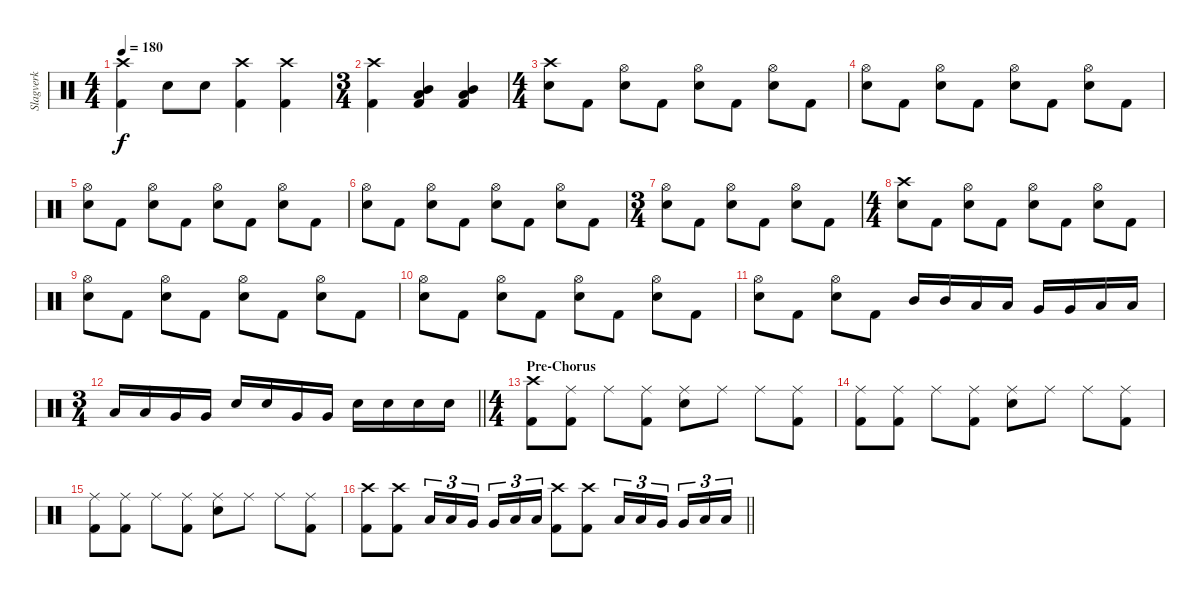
\track ("Slagverk" "Slagverk") {instrument percussion}
\staff {score}
\articulation defaults
\ts (4 4)
\tempo 180
\clef neutral
\ks c
("Crash high (hit)" "Kick (hit) 2").4{dy f} "Electric Snare (hit)".8 "Electric Snare (hit)".8 ("Crash high (hit)" "Kick (hit) 2").4 ("Crash high (hit)" "Kick (hit) 2").4 |
\ts (3 4)
("Crash high (hit)" "Kick (hit) 2").4 ("Mid Tom (hit)" "Low Tom (hit)" "Kick (hit) 2").4 ("Mid Tom (hit)" "Low Tom (hit)" "Kick (hit) 2").4 |
\ts (4 4)
("Crash high (hit)" "Electric Snare (hit)").8 "Kick (hit) 2".8 ("Hi-Hat (open)" "Electric Snare (hit)").8 "Kick (hit) 2".8 ("Hi-Hat (open)" "Electric Snare (hit)").8 "Kick (hit) 2".8 ("Hi-Hat (open)" "Electric Snare (hit)").8 "Kick (hit) 2".8 |
("Hi-Hat (open)" "Electric Snare (hit)").8 "Kick (hit) 2".8 ("Hi-Hat (open)" "Electric Snare (hit)").8 "Kick (hit) 2".8 ("Hi-Hat (open)" "Electric Snare (hit)").8 "Kick (hit) 2".8 ("Hi-Hat (open)" "Electric Snare (hit)").8 "Kick (hit) 2".8 |
("Hi-Hat (open)" "Electric Snare (hit)").8 "Kick (hit) 2".8 ("Hi-Hat (open)" "Electric Snare (hit)").8 "Kick (hit) 2".8 ("Hi-Hat (open)" "Electric Snare (hit)").8 "Kick (hit) 2".8 ("Hi-Hat (open)" "Electric Snare (hit)").8 "Kick (hit) 2".8 |
("Hi-Hat (open)" "Electric Snare (hit)").8 "Kick (hit) 2".8 ("Hi-Hat (open)" "Electric Snare (hit)").8 "Kick (hit) 2".8 ("Hi-Hat (open)" "Electric Snare (hit)").8 "Kick (hit) 2".8 ("Hi-Hat (open)" "Electric Snare (hit)").8 "Kick (hit) 2".8 |
\ts (3 4)
("Hi-Hat (open)" "Electric Snare (hit)").8 "Kick (hit) 2".8 ("Hi-Hat (open)" "Electric Snare (hit)").8 "Kick (hit) 2".8 ("Hi-Hat (open)" "Electric Snare (hit)").8 "Kick (hit) 2".8 |
\ts (4 4)
("Crash high (hit)" "Electric Snare (hit)").8 "Kick (hit) 2".8 ("Hi-Hat (open)" "Electric Snare (hit)").8 "Kick (hit) 2".8 ("Hi-Hat (open)" "Electric Snare (hit)").8 "Kick (hit) 2".8 ("Hi-Hat (open)" "Electric Snare (hit)").8 "Kick (hit) 2".8 |
("Hi-Hat (open)" "Electric Snare (hit)").8 "Kick (hit) 2".8 ("Hi-Hat (open)" "Electric Snare (hit)").8 "Kick (hit) 2".8 ("Hi-Hat (open)" "Electric Snare (hit)").8 "Kick (hit) 2".8 ("Hi-Hat (open)" "Electric Snare (hit)").8 "Kick (hit) 2".8 |
("Hi-Hat (open)" "Electric Snare (hit)").8 "Kick (hit) 2".8 ("Hi-Hat (open)" "Electric Snare (hit)").8 "Kick (hit) 2".8 ("Hi-Hat (open)" "Electric Snare (hit)").8 "Kick (hit) 2".8 ("Hi-Hat (open)" "Electric Snare (hit)").8 "Kick (hit) 2".8 |
("Hi-Hat (open)" "Electric Snare (hit)").8 "Kick (hit) 2".8 ("Hi-Hat (open)" "Electric Snare (hit)").8 "Kick (hit) 2".8 "Mid Tom (hit)".16 "Mid Tom (hit)".16 "Low Tom (hit)".16 "Low Tom (hit)".16 "Very Low Tom (hit)".16 "Very Low Tom (hit)".16 "Low Tom (hit)".16 "Low Tom (hit)".16 |
\ts (3 4)
\barLineRight lightlight "Low Tom (hit)".16 "Low Tom (hit)".16 "Very Low Tom (hit)".16 "Very Low Tom (hit)".16 "Electric Snare (hit)".16 "Electric Snare (hit)".16 "Very Low Tom (hit)".16 "Very Low Tom (hit)".16 "Electric Snare (hit)".16 "Electric Snare (hit)".16 "Electric Snare (hit)".16 "Electric Snare (hit)".16
|
\ts (4 4)
\section ("" "Pre-Chorus")
("Crash high (hit)" "Kick (hit) 2").8 ("Ride (middle)" "Kick (hit) 2").8 "Ride (middle)".8 ("Ride (middle)" "Kick (hit) 2").8 ("Ride (middle)" "Electric Snare (hit)").8 "Ride (middle)".8 "Ride (middle)".8 ("Ride (middle)" "Kick (hit) 2").8 |
("Ride (middle)" "Kick (hit) 2").8 ("Ride (middle)" "Kick (hit) 2").8 "Ride (middle)".8 ("Ride (middle)" "Kick (hit) 2").8 ("Ride (middle)" "Electric Snare (hit)").8 "Ride (middle)".8 "Ride (middle)".8 ("Ride (middle)" "Kick (hit) 2").8 |
("Ride (middle)" "Kick (hit) 2").8 ("Ride (middle)" "Kick (hit) 2").8 "Ride (middle)".8 ("Ride (middle)" "Kick (hit) 2").8 ("Ride (middle)" "Electric Snare (hit)").8 "Ride (middle)".8 "Ride (middle)".8 ("Ride (middle)" "Kick (hit) 2").8 |
\barLineRight lightlight
("Crash high (hit)" "Kick (hit) 2").8 ("Crash high (hit)" "Kick (hit) 2").8 "Low Tom (hit)".16{tu (3 2)} "Low Tom (hit)".16{tu (3 2)} "Very Low Tom (hit)".16{tu (3 2) beam splitsecondary} "Very Low Tom (hit)".16{tu (3 2)} "Low Floor Tom (hit)".16{tu (3 2)} "Low Floor Tom (hit)".16{tu (3 2)} ("Crash high (hit)" "Kick (hit) 2").8 ("Crash high (hit)" "Kick (hit) 2").8 "Low Tom (hit)".16{tu (3 2)} "Low Tom (hit)".16{tu (3 2)} "Very Low Tom (hit)".16{tu (3 2) beam splitsecondary} "Very Low Tom (hit)".16{tu (3 2)} "Low Floor Tom (hit)".16{tu (3 2)} "Low Floor Tom (hit)".16{tu (3 2)}
